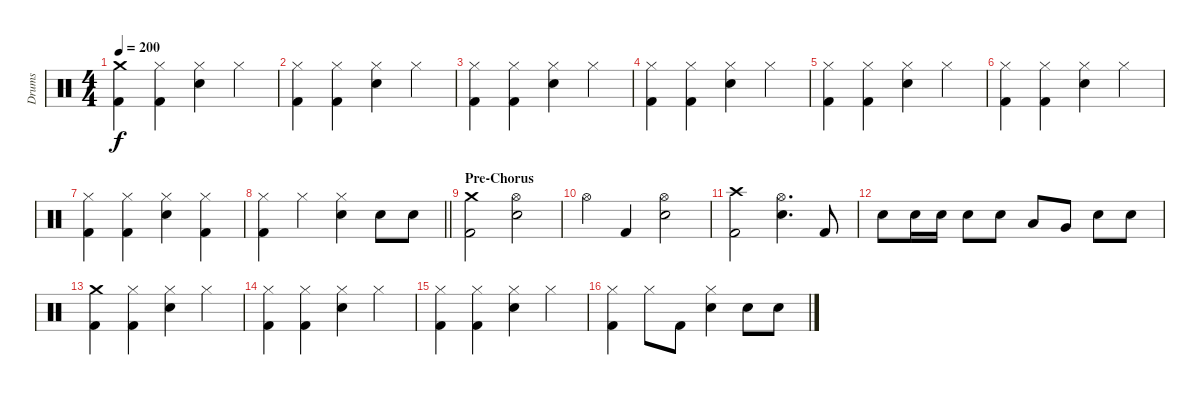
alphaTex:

\track ("Drums" "Drums") {instrument percussion}
\staff {score}
\articulation defaults
\ts (4 4)
\tempo 200
\clef neutral
\ks c
("Crash medium (hit)" "Kick (hit) 2").4{dy f} ("Hi-Hat (closed)" "Kick (hit) 2").4 ("Hi-Hat (closed)" "Electric Snare (hit)").4 "Hi-Hat (closed)".4 |
("Hi-Hat (closed)" "Kick (hit) 2").4 ("Hi-Hat (closed)" "Kick (hit) 2").4 ("Hi-Hat (closed)" "Electric Snare (hit)").4 "Hi-Hat (closed)".4 |
("Hi-Hat (closed)" "Kick (hit) 2").4 ("Hi-Hat (closed)" "Kick (hit) 2").4 ("Hi-Hat (closed)" "Electric Snare (hit)").4 "Hi-Hat (closed)".4 |
("Hi-Hat (closed)" "Kick (hit) 2").4 ("Hi-Hat (closed)" "Kick (hit) 2").4 ("Hi-Hat (closed)" "Electric Snare (hit)").4 "Hi-Hat (closed)".4 |
("Hi-Hat (closed)" "Kick (hit) 2").4 ("Hi-Hat (closed)" "Kick (hit) 2").4 ("Hi-Hat (closed)" "Electric Snare (hit)").4 "Hi-Hat (closed)".4 |
("Hi-Hat (closed)" "Kick (hit) 2").4 ("Hi-Hat (closed)" "Kick (hit) 2").4 ("Hi-Hat (closed)" "Electric Snare (hit)").4 "Hi-Hat (closed)".4 |
("Hi-Hat (closed)" "Kick (hit) 2").4 ("Hi-Hat (closed)" "Kick (hit) 2").4 ("Hi-Hat (closed)" "Electric Snare (hit)").4 ("Hi-Hat (closed)" "Kick (hit) 2").4 |
\barLineRight lightlight
("Hi-Hat (closed)" "Kick (hit) 2").4 "Hi-Hat (closed)".4 ("Hi-Hat (closed)" "Electric Snare (hit)").4 "Electric Snare (hit)".8 "Electric Snare (hit)".8 |
\section ("" "Pre-Chorus")
("Crash medium (hit)" "Kick (hit) 2").2 ("Hi-Hat (open)" "Electric Snare (hit)").2 |
"Hi-Hat (open)".4 "Kick (hit) 2".4 ("Hi-Hat (open)" "Electric Snare (hit)").2 |
("Crash high (hit)" "Kick (hit) 2").2 ("Hi-Hat (open)" "Electric Snare (hit)").4{d} "Kick (hit) 2".8 |
"Electric Snare (hit)".8 "Electric Snare (hit)".16 "Electric Snare (hit)".16 "Electric Snare (hit)".8 "Electric Snare (hit)".8 "Low Tom (hit)".8 "Very Low Tom (hit)".8 "Electric Snare (hit)".8 "Electric Snare (hit)".8 |
("Crash medium (hit)" "Kick (hit) 2").4 ("Hi-Hat (closed)" "Kick (hit) 2").4 ("Hi-Hat (closed)" "Electric Snare (hit)").4 "Hi-Hat (closed)".4 |
("Hi-Hat (closed)" "Kick (hit) 2").4 ("Hi-Hat (closed)" "Kick (hit) 2").4 ("Hi-Hat (closed)" "Electric Snare (hit)").4 "Hi-Hat (closed)".4 |
("Hi-Hat (closed)" "Kick (hit) 2").4 ("Hi-Hat (closed)" "Kick (hit) 2").4 ("Hi-Hat (closed)" "Electric Snare (hit)").4 "Hi-Hat (closed)".4 |
("Hi-Hat (closed)" "Kick (hit) 2").4 "Hi-Hat (closed)".8 "Kick (hit) 2".8 ("Hi-Hat (closed)" "Electric Snare (hit)").4 "Electric Snare (hit)".8 "Electric Snare (hit)".8
